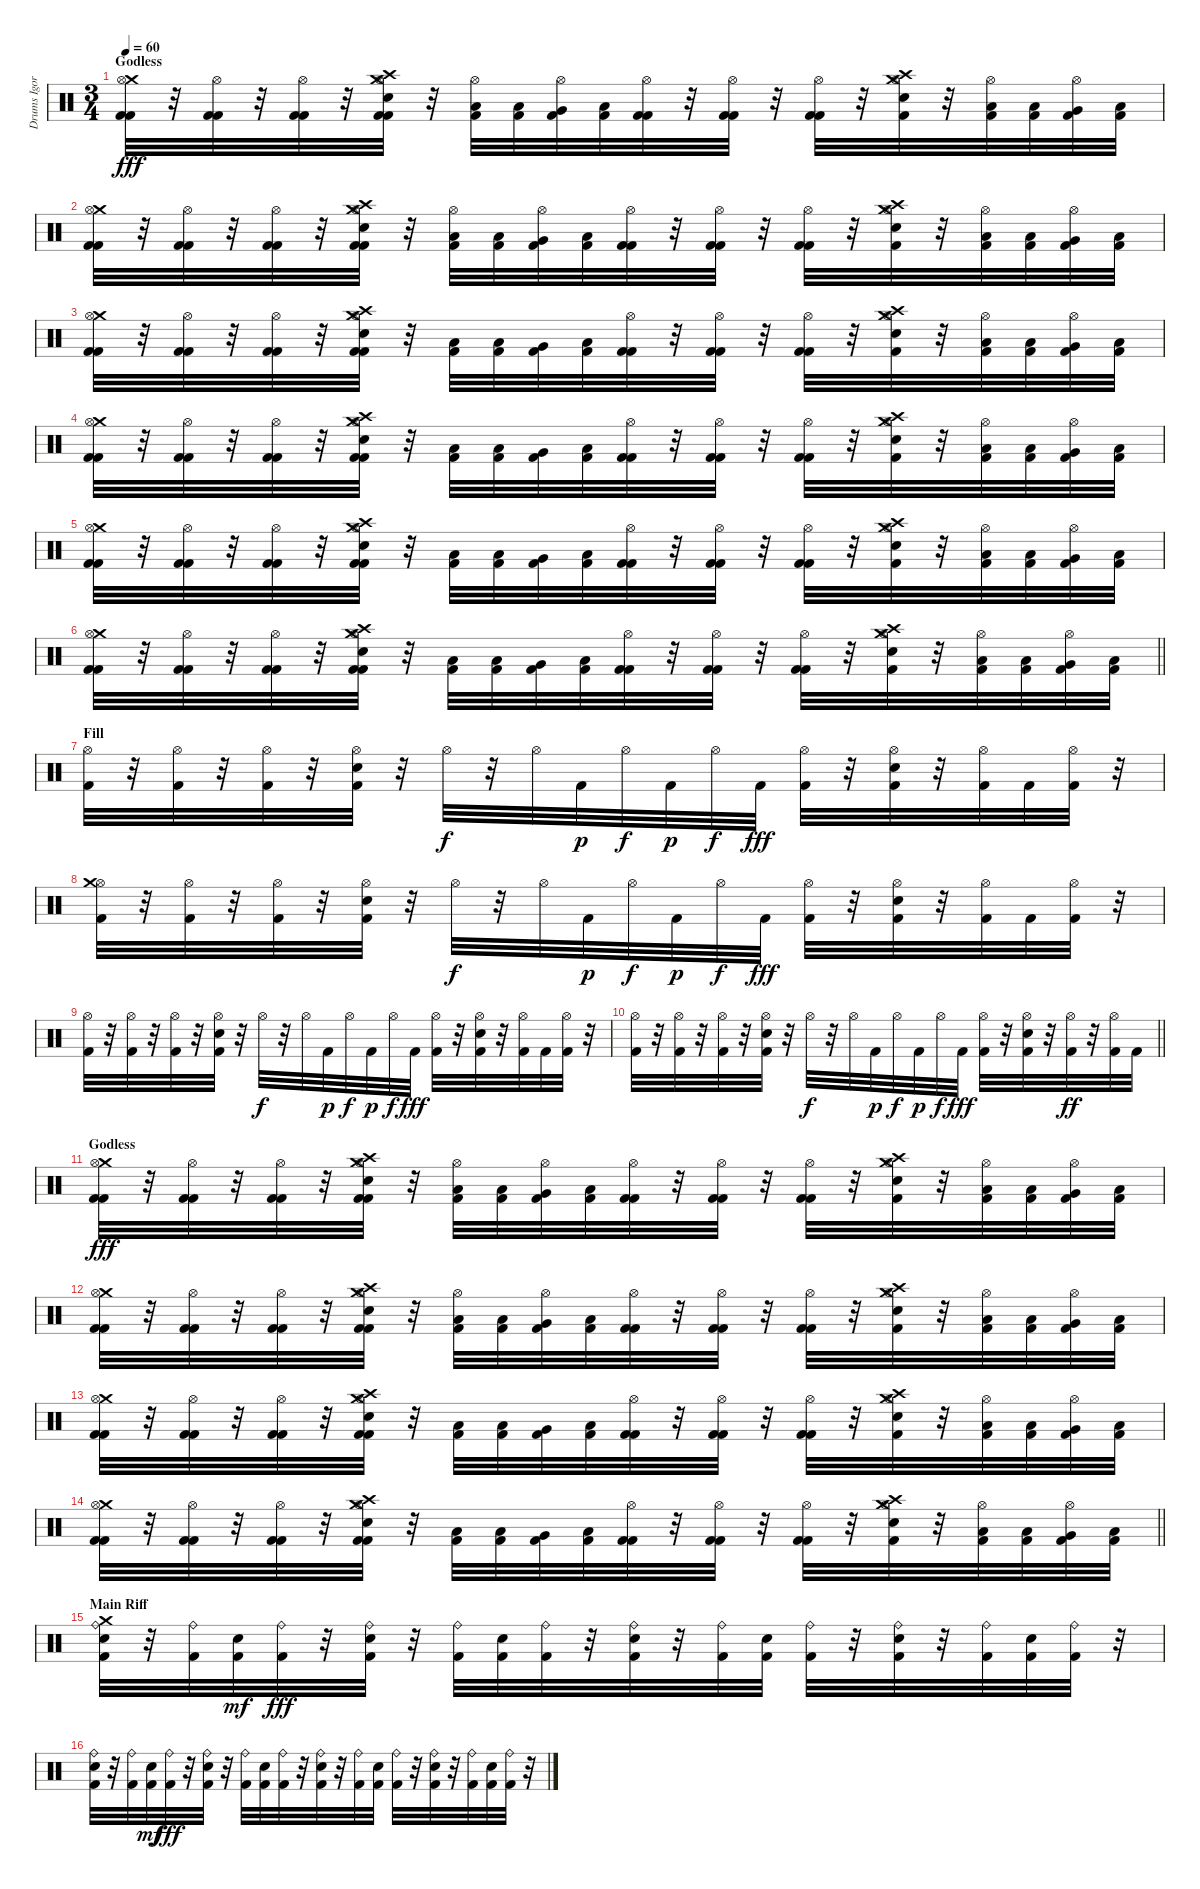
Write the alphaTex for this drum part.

\track ("Drums Igor" "Drums Igor") {instrument percussion}
\staff {score}
\articulation defaults
\ts (3 4)
\section ("" "Godless")
\tempo 60
\clef neutral
\ks c
("Crash medium (hit)" "Hi-Hat (open)" "Kick (hit) 2" "Kick (hit) 2").32{dy fff} r.32 ("Hi-Hat (open)" "Kick (hit) 2" "Kick (hit) 2").32 r.32 ("Hi-Hat (open)" "Kick (hit) 2" "Kick (hit) 2").32 r.32 ("Crash medium (hit)" "Hi-Hat (open)" "Electric Snare (hit)" "Crash high (hit)" "Kick (hit) 2" "Kick (hit) 2").32 r.32 ("Hi-Hat (open)" "Low Tom (hit)" "Kick (hit) 2").32 ("Low Tom (hit)" "Kick (hit) 2").32 ("Hi-Hat (open)" "Very Low Tom (hit)" "Kick (hit) 2").32 ("Low Floor Tom (hit)" "Kick (hit) 2").32 ("Hi-Hat (open)" "Kick (hit) 2" "Kick (hit) 2").32 r.32 ("Hi-Hat (open)" "Kick (hit) 2" "Kick (hit) 2").32 r.32 ("Hi-Hat (open)" "Kick (hit) 2" "Kick (hit) 2").32 r.32 ("Crash medium (hit)" "Hi-Hat (open)" "Crash high (hit)" "Electric Snare (hit)" "Kick (hit) 2").32 r.32 ("Hi-Hat (open)" "Low Tom (hit)" "Kick (hit) 2").32 ("Low Tom (hit)" "Kick (hit) 2").32 ("Hi-Hat (open)" "Very Low Tom (hit)" "Kick (hit) 2").32 ("Low Floor Tom (hit)" "Kick (hit) 2").32 |
("Crash medium (hit)" "Hi-Hat (open)" "Kick (hit) 2" "Kick (hit) 2").32 r.32 ("Hi-Hat (open)" "Kick (hit) 2" "Kick (hit) 2").32 r.32 ("Hi-Hat (open)" "Kick (hit) 2" "Kick (hit) 2").32 r.32 ("Crash medium (hit)" "Hi-Hat (open)" "Electric Snare (hit)" "Crash high (hit)" "Kick (hit) 2" "Kick (hit) 2").32 r.32 ("Hi-Hat (open)" "Low Tom (hit)" "Kick (hit) 2").32 ("Low Tom (hit)" "Kick (hit) 2").32 ("Hi-Hat (open)" "Very Low Tom (hit)" "Kick (hit) 2").32 ("Low Floor Tom (hit)" "Kick (hit) 2").32 ("Hi-Hat (open)" "Kick (hit) 2" "Kick (hit) 2").32 r.32 ("Hi-Hat (open)" "Kick (hit) 2" "Kick (hit) 2").32 r.32 ("Hi-Hat (open)" "Kick (hit) 2" "Kick (hit) 2").32 r.32 ("Crash medium (hit)" "Hi-Hat (open)" "Crash high (hit)" "Electric Snare (hit)" "Kick (hit) 2").32 r.32 ("Hi-Hat (open)" "Low Tom (hit)" "Kick (hit) 2").32 ("Low Tom (hit)" "Kick (hit) 2").32 ("Hi-Hat (open)" "Very Low Tom (hit)" "Kick (hit) 2").32 ("Low Floor Tom (hit)" "Kick (hit) 2").32 |
("Crash medium (hit)" "Hi-Hat (open)" "Kick (hit) 2" "Kick (hit) 2").32 r.32 ("Hi-Hat (open)" "Kick (hit) 2" "Kick (hit) 2").32 r.32 ("Hi-Hat (open)" "Kick (hit) 2" "Kick (hit) 2").32 r.32 ("Crash medium (hit)" "Hi-Hat (open)" "Electric Snare (hit)" "Crash high (hit)" "Kick (hit) 2" "Kick (hit) 2").32 r.32 ("Low Tom (hit)" "Kick (hit) 2").32 ("Low Tom (hit)" "Kick (hit) 2").32 ("Very Low Tom (hit)" "Kick (hit) 2").32 ("Low Floor Tom (hit)" "Kick (hit) 2").32 ("Hi-Hat (open)" "Kick (hit) 2" "Kick (hit) 2").32 r.32 ("Hi-Hat (open)" "Kick (hit) 2" "Kick (hit) 2").32 r.32 ("Hi-Hat (open)" "Kick (hit) 2" "Kick (hit) 2").32 r.32 ("Crash medium (hit)" "Hi-Hat (open)" "Crash high (hit)" "Electric Snare (hit)" "Kick (hit) 2").32 r.32 ("Hi-Hat (open)" "Low Tom (hit)" "Kick (hit) 2").32 ("Low Tom (hit)" "Kick (hit) 2").32 ("Hi-Hat (open)" "Very Low Tom (hit)" "Kick (hit) 2").32 ("Low Floor Tom (hit)" "Kick (hit) 2").32 |
("Crash medium (hit)" "Hi-Hat (open)" "Kick (hit) 2" "Kick (hit) 2").32 r.32 ("Hi-Hat (open)" "Kick (hit) 2" "Kick (hit) 2").32 r.32 ("Hi-Hat (open)" "Kick (hit) 2" "Kick (hit) 2").32 r.32 ("Crash medium (hit)" "Hi-Hat (open)" "Electric Snare (hit)" "Crash high (hit)" "Kick (hit) 2" "Kick (hit) 2").32 r.32 ("Low Tom (hit)" "Kick (hit) 2").32 ("Low Tom (hit)" "Kick (hit) 2").32 ("Very Low Tom (hit)" "Kick (hit) 2").32 ("Low Floor Tom (hit)" "Kick (hit) 2").32 ("Hi-Hat (open)" "Kick (hit) 2" "Kick (hit) 2").32 r.32 ("Hi-Hat (open)" "Kick (hit) 2" "Kick (hit) 2").32 r.32 ("Hi-Hat (open)" "Kick (hit) 2" "Kick (hit) 2").32 r.32 ("Crash medium (hit)" "Hi-Hat (open)" "Crash high (hit)" "Electric Snare (hit)" "Kick (hit) 2").32 r.32 ("Hi-Hat (open)" "Low Tom (hit)" "Kick (hit) 2").32 ("Low Tom (hit)" "Kick (hit) 2").32 ("Hi-Hat (open)" "Very Low Tom (hit)" "Kick (hit) 2").32 ("Low Floor Tom (hit)" "Kick (hit) 2").32 |
("Crash medium (hit)" "Hi-Hat (open)" "Kick (hit) 2" "Kick (hit) 2").32 r.32 ("Hi-Hat (open)" "Kick (hit) 2" "Kick (hit) 2").32 r.32 ("Hi-Hat (open)" "Kick (hit) 2" "Kick (hit) 2").32 r.32 ("Crash medium (hit)" "Hi-Hat (open)" "Electric Snare (hit)" "Crash high (hit)" "Kick (hit) 2" "Kick (hit) 2").32 r.32 ("Low Tom (hit)" "Kick (hit) 2").32 ("Low Tom (hit)" "Kick (hit) 2").32 ("Very Low Tom (hit)" "Kick (hit) 2").32 ("Low Floor Tom (hit)" "Kick (hit) 2").32 ("Hi-Hat (open)" "Kick (hit) 2" "Kick (hit) 2").32 r.32 ("Hi-Hat (open)" "Kick (hit) 2" "Kick (hit) 2").32 r.32 ("Hi-Hat (open)" "Kick (hit) 2" "Kick (hit) 2").32 r.32 ("Crash medium (hit)" "Hi-Hat (open)" "Crash high (hit)" "Electric Snare (hit)" "Kick (hit) 2").32 r.32 ("Hi-Hat (open)" "Low Tom (hit)" "Kick (hit) 2").32 ("Low Tom (hit)" "Kick (hit) 2").32 ("Hi-Hat (open)" "Very Low Tom (hit)" "Kick (hit) 2").32 ("Low Floor Tom (hit)" "Kick (hit) 2").32 |
\barLineRight lightlight
("Crash medium (hit)" "Hi-Hat (open)" "Kick (hit) 2" "Kick (hit) 2").32 r.32 ("Hi-Hat (open)" "Kick (hit) 2" "Kick (hit) 2").32 r.32 ("Hi-Hat (open)" "Kick (hit) 2" "Kick (hit) 2").32 r.32 ("Crash medium (hit)" "Hi-Hat (open)" "Electric Snare (hit)" "Crash high (hit)" "Kick (hit) 2" "Kick (hit) 2").32 r.32 ("Low Tom (hit)" "Kick (hit) 2").32 ("Low Tom (hit)" "Kick (hit) 2").32 ("Very Low Tom (hit)" "Kick (hit) 2").32 ("Low Floor Tom (hit)" "Kick (hit) 2").32 ("Hi-Hat (open)" "Kick (hit) 2" "Kick (hit) 2").32 r.32 ("Hi-Hat (open)" "Kick (hit) 2" "Kick (hit) 2").32 r.32 ("Hi-Hat (open)" "Kick (hit) 2" "Kick (hit) 2").32 r.32 ("Crash medium (hit)" "Hi-Hat (open)" "Crash high (hit)" "Electric Snare (hit)" "Kick (hit) 2").32 r.32 ("Hi-Hat (open)" "Low Tom (hit)" "Kick (hit) 2").32 ("Low Tom (hit)" "Kick (hit) 2").32 ("Hi-Hat (open)" "Very Low Tom (hit)" "Kick (hit) 2").32 ("Low Floor Tom (hit)" "Kick (hit) 2").32 |
\section ("" "Fill")
("Hi-Hat (open)" "Kick (hit) 2").32 r.32 ("Hi-Hat (open)" "Kick (hit) 2").32 r.32 ("Hi-Hat (open)" "Kick (hit) 2").32 r.32 ("Hi-Hat (open)" "Electric Snare (hit)" "Kick (hit) 2").32 r.32 "Hi-Hat (open)".32{dy f} r.32 "Hi-Hat (open)".32 "Kick (hit) 2".32{dy p} "Hi-Hat (open)".32{dy f} "Kick (hit) 2".32{dy p} "Hi-Hat (open)".32{dy f} "Kick (hit) 2".32{dy fff} ("Hi-Hat (open)" "Kick (hit) 2").32 r.32 ("Hi-Hat (open)" "Electric Snare (hit)" "Kick (hit) 2").32 r.32 ("Hi-Hat (open)" "Kick (hit) 2").32 "Kick (hit) 2".32 ("Hi-Hat (open)" "Kick (hit) 2").32 r.32 |
("Hi-Hat (open)" "Crash medium (hit)" "Kick (hit) 2").32 r.32 ("Hi-Hat (open)" "Kick (hit) 2").32 r.32 ("Hi-Hat (open)" "Kick (hit) 2").32 r.32 ("Hi-Hat (open)" "Electric Snare (hit)" "Kick (hit) 2").32 r.32 "Hi-Hat (open)".32{dy f} r.32 "Hi-Hat (open)".32 "Kick (hit) 2".32{dy p} "Hi-Hat (open)".32{dy f} "Kick (hit) 2".32{dy p} "Hi-Hat (open)".32{dy f} "Kick (hit) 2".32{dy fff} ("Hi-Hat (open)" "Kick (hit) 2").32 r.32 ("Hi-Hat (open)" "Electric Snare (hit)" "Kick (hit) 2").32 r.32 ("Hi-Hat (open)" "Kick (hit) 2").32 "Kick (hit) 2".32 ("Hi-Hat (open)" "Kick (hit) 2").32 r.32 |
("Hi-Hat (open)" "Kick (hit) 2").32 r.32 ("Hi-Hat (open)" "Kick (hit) 2").32 r.32 ("Hi-Hat (open)" "Kick (hit) 2").32 r.32 ("Hi-Hat (open)" "Electric Snare (hit)" "Kick (hit) 2").32 r.32 "Hi-Hat (open)".32{dy f} r.32 "Hi-Hat (open)".32 "Kick (hit) 2".32{dy p} "Hi-Hat (open)".32{dy f} "Kick (hit) 2".32{dy p} "Hi-Hat (open)".32{dy f} "Kick (hit) 2".32{dy fff} ("Hi-Hat (open)" "Kick (hit) 2").32 r.32 ("Hi-Hat (open)" "Electric Snare (hit)" "Kick (hit) 2").32 r.32 ("Hi-Hat (open)" "Kick (hit) 2").32 "Kick (hit) 2".32 ("Hi-Hat (open)" "Kick (hit) 2").32 r.32 |
\barLineRight lightlight
("Hi-Hat (open)" "Kick (hit) 2").32 r.32 ("Hi-Hat (open)" "Kick (hit) 2").32 r.32 ("Hi-Hat (open)" "Kick (hit) 2").32 r.32 ("Hi-Hat (open)" "Electric Snare (hit)" "Kick (hit) 2").32 r.32 "Hi-Hat (open)".32{dy f} r.32 "Hi-Hat (open)".32 "Kick (hit) 2".32{dy p} "Hi-Hat (open)".32{dy f} "Kick (hit) 2".32{dy p} "Hi-Hat (open)".32{dy f} "Kick (hit) 2".32{dy fff} ("Hi-Hat (open)" "Kick (hit) 2").32 r.32 ("Hi-Hat (open)" "Electric Snare (hit)" "Kick (hit) 2").32 r.32 ("Hi-Hat (open)" "Kick (hit) 2").32{dy ff} r.32 ("Hi-Hat (open)" "Kick (hit) 2").32 "Kick (hit) 2".32 |
\section ("" "Godless")
("Crash medium (hit)" "Hi-Hat (open)" "Kick (hit) 2" "Kick (hit) 2").32{dy fff} r.32 ("Hi-Hat (open)" "Kick (hit) 2" "Kick (hit) 2").32 r.32 ("Hi-Hat (open)" "Kick (hit) 2" "Kick (hit) 2").32 r.32 ("Crash medium (hit)" "Hi-Hat (open)" "Electric Snare (hit)" "Crash high (hit)" "Kick (hit) 2" "Kick (hit) 2").32 r.32 ("Hi-Hat (open)" "Low Tom (hit)" "Kick (hit) 2").32 ("Low Tom (hit)" "Kick (hit) 2").32 ("Hi-Hat (open)" "Very Low Tom (hit)" "Kick (hit) 2").32 ("Low Floor Tom (hit)" "Kick (hit) 2").32 ("Hi-Hat (open)" "Kick (hit) 2" "Kick (hit) 2").32 r.32 ("Hi-Hat (open)" "Kick (hit) 2" "Kick (hit) 2").32 r.32 ("Hi-Hat (open)" "Kick (hit) 2" "Kick (hit) 2").32 r.32 ("Crash medium (hit)" "Hi-Hat (open)" "Crash high (hit)" "Electric Snare (hit)" "Kick (hit) 2").32 r.32 ("Hi-Hat (open)" "Low Tom (hit)" "Kick (hit) 2").32 ("Low Tom (hit)" "Kick (hit) 2").32 ("Hi-Hat (open)" "Very Low Tom (hit)" "Kick (hit) 2").32 ("Low Floor Tom (hit)" "Kick (hit) 2").32 |
("Crash medium (hit)" "Hi-Hat (open)" "Kick (hit) 2" "Kick (hit) 2").32 r.32 ("Hi-Hat (open)" "Kick (hit) 2" "Kick (hit) 2").32 r.32 ("Hi-Hat (open)" "Kick (hit) 2" "Kick (hit) 2").32 r.32 ("Crash medium (hit)" "Hi-Hat (open)" "Electric Snare (hit)" "Crash high (hit)" "Kick (hit) 2" "Kick (hit) 2").32 r.32 ("Hi-Hat (open)" "Low Tom (hit)" "Kick (hit) 2").32 ("Low Tom (hit)" "Kick (hit) 2").32 ("Hi-Hat (open)" "Very Low Tom (hit)" "Kick (hit) 2").32 ("Low Floor Tom (hit)" "Kick (hit) 2").32 ("Hi-Hat (open)" "Kick (hit) 2" "Kick (hit) 2").32 r.32 ("Hi-Hat (open)" "Kick (hit) 2" "Kick (hit) 2").32 r.32 ("Hi-Hat (open)" "Kick (hit) 2" "Kick (hit) 2").32 r.32 ("Crash medium (hit)" "Hi-Hat (open)" "Crash high (hit)" "Electric Snare (hit)" "Kick (hit) 2").32 r.32 ("Hi-Hat (open)" "Low Tom (hit)" "Kick (hit) 2").32 ("Low Tom (hit)" "Kick (hit) 2").32 ("Hi-Hat (open)" "Very Low Tom (hit)" "Kick (hit) 2").32 ("Low Floor Tom (hit)" "Kick (hit) 2").32 |
("Crash medium (hit)" "Hi-Hat (open)" "Kick (hit) 2" "Kick (hit) 2").32 r.32 ("Hi-Hat (open)" "Kick (hit) 2" "Kick (hit) 2").32 r.32 ("Hi-Hat (open)" "Kick (hit) 2" "Kick (hit) 2").32 r.32 ("Crash medium (hit)" "Hi-Hat (open)" "Electric Snare (hit)" "Crash high (hit)" "Kick (hit) 2" "Kick (hit) 2").32 r.32 ("Low Tom (hit)" "Kick (hit) 2").32 ("Low Tom (hit)" "Kick (hit) 2").32 ("Very Low Tom (hit)" "Kick (hit) 2").32 ("Low Floor Tom (hit)" "Kick (hit) 2").32 ("Hi-Hat (open)" "Kick (hit) 2" "Kick (hit) 2").32 r.32 ("Hi-Hat (open)" "Kick (hit) 2" "Kick (hit) 2").32 r.32 ("Hi-Hat (open)" "Kick (hit) 2" "Kick (hit) 2").32 r.32 ("Crash medium (hit)" "Hi-Hat (open)" "Crash high (hit)" "Electric Snare (hit)" "Kick (hit) 2").32 r.32 ("Hi-Hat (open)" "Low Tom (hit)" "Kick (hit) 2").32 ("Low Tom (hit)" "Kick (hit) 2").32 ("Hi-Hat (open)" "Very Low Tom (hit)" "Kick (hit) 2").32 ("Low Floor Tom (hit)" "Kick (hit) 2").32 |
\barLineRight lightlight
("Crash medium (hit)" "Hi-Hat (open)" "Kick (hit) 2" "Kick (hit) 2").32 r.32 ("Hi-Hat (open)" "Kick (hit) 2" "Kick (hit) 2").32 r.32 ("Hi-Hat (open)" "Kick (hit) 2" "Kick (hit) 2").32 r.32 ("Crash medium (hit)" "Hi-Hat (open)" "Electric Snare (hit)" "Crash high (hit)" "Kick (hit) 2" "Kick (hit) 2").32 r.32 ("Low Tom (hit)" "Kick (hit) 2").32 ("Low Tom (hit)" "Kick (hit) 2").32 ("Very Low Tom (hit)" "Kick (hit) 2").32 ("Low Floor Tom (hit)" "Kick (hit) 2").32 ("Hi-Hat (open)" "Kick (hit) 2" "Kick (hit) 2").32 r.32 ("Hi-Hat (open)" "Kick (hit) 2" "Kick (hit) 2").32 r.32 ("Hi-Hat (open)" "Kick (hit) 2" "Kick (hit) 2").32 r.32 ("Crash medium (hit)" "Hi-Hat (open)" "Crash high (hit)" "Electric Snare (hit)" "Kick (hit) 2").32 r.32 ("Hi-Hat (open)" "Low Tom (hit)" "Kick (hit) 2").32 ("Low Tom (hit)" "Kick (hit) 2").32 ("Hi-Hat (open)" "Very Low Tom (hit)" "Kick (hit) 2").32 ("Low Floor Tom (hit)" "Kick (hit) 2").32 |
\section ("" "Main Riff")
("Ride (bell)" "Crash medium (hit)" "Electric Snare (hit)" "Kick (hit) 2").32 r.32 ("Ride (bell)" "Kick (hit) 2").32 ("Electric Snare (hit)" "Kick (hit) 2").32{dy mf} ("Ride (bell)" "Kick (hit) 2").32{dy fff} r.32 ("Ride (bell)" "Electric Snare (hit)" "Kick (hit) 2").32 r.32 ("Ride (bell)" "Kick (hit) 2").32 ("Electric Snare (hit)" "Kick (hit) 2").32 ("Ride (bell)" "Kick (hit) 2").32 r.32 ("Ride (bell)" "Electric Snare (hit)" "Kick (hit) 2").32 r.32 ("Ride (bell)" "Kick (hit) 2").32 ("Electric Snare (hit)" "Kick (hit) 2").32 ("Ride (bell)" "Kick (hit) 2").32 r.32 ("Ride (bell)" "Electric Snare (hit)" "Kick (hit) 2").32 r.32 ("Ride (bell)" "Kick (hit) 2").32 ("Electric Snare (hit)" "Kick (hit) 2").32 ("Ride (bell)" "Kick (hit) 2").32 r.32 |
("Ride (bell)" "Electric Snare (hit)" "Kick (hit) 2").32 r.32 ("Ride (bell)" "Kick (hit) 2").32 ("Electric Snare (hit)" "Kick (hit) 2").32{dy mf} ("Ride (bell)" "Kick (hit) 2").32{dy fff} r.32 ("Ride (bell)" "Electric Snare (hit)" "Kick (hit) 2").32 r.32 ("Ride (bell)" "Kick (hit) 2").32 ("Electric Snare (hit)" "Kick (hit) 2").32 ("Ride (bell)" "Kick (hit) 2").32 r.32 ("Ride (bell)" "Electric Snare (hit)" "Kick (hit) 2").32 r.32 ("Ride (bell)" "Kick (hit) 2").32 ("Electric Snare (hit)" "Kick (hit) 2").32 ("Ride (bell)" "Kick (hit) 2").32 r.32 ("Ride (bell)" "Electric Snare (hit)" "Kick (hit) 2").32 r.32 ("Ride (bell)" "Kick (hit) 2").32 ("Electric Snare (hit)" "Kick (hit) 2").32 ("Ride (bell)" "Kick (hit) 2").32 r.32
